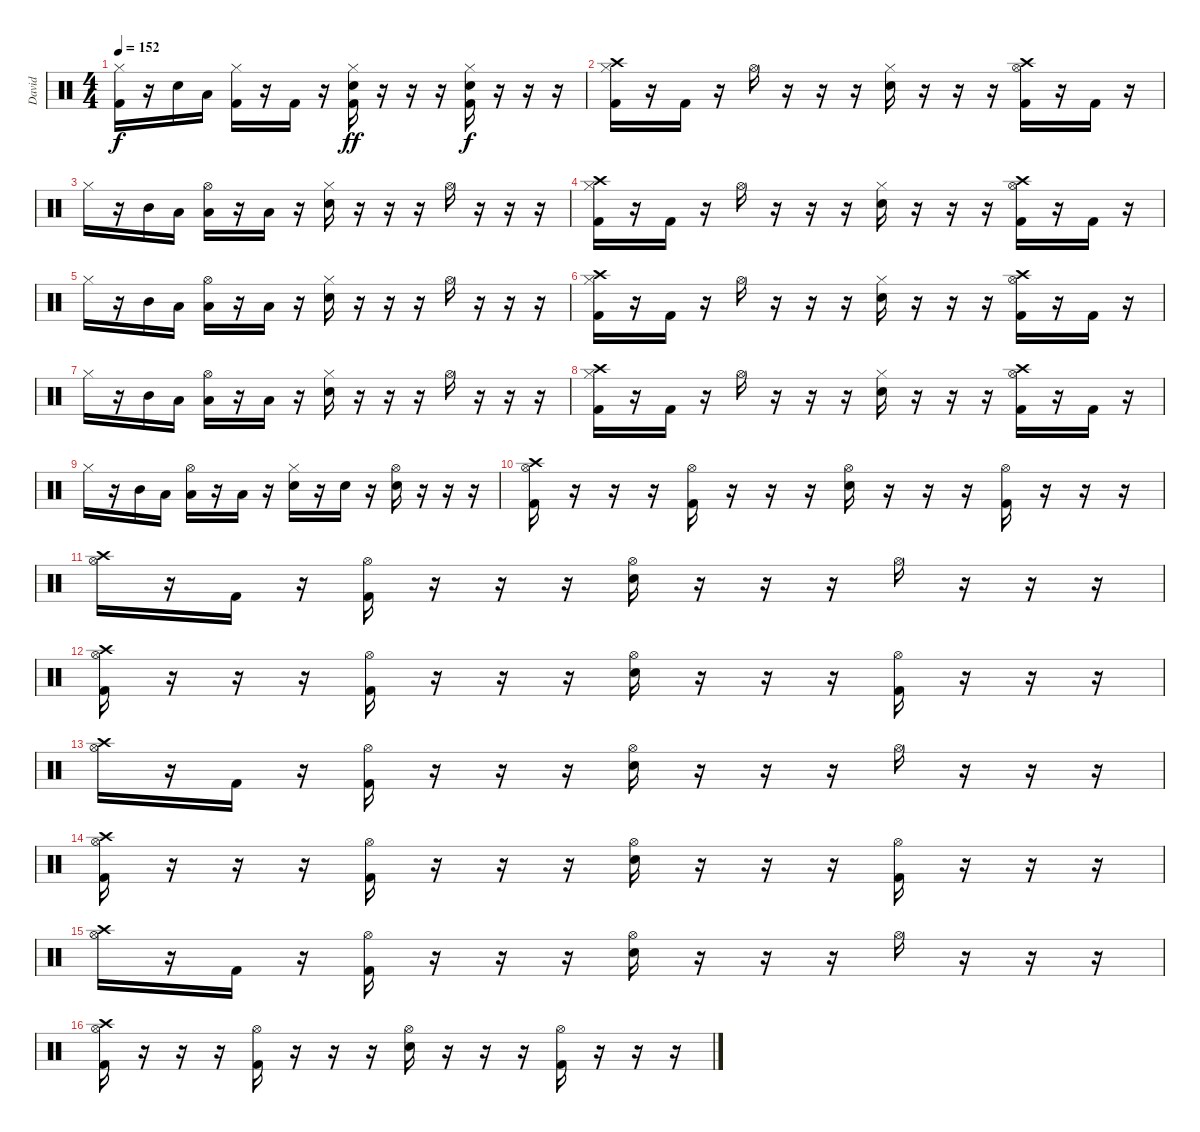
\track ("David" "David") {instrument percussion}
\staff {score}
\articulation defaults
\ts (4 4)
\tempo 152
\clef neutral
\ks c
("Hi-Hat (closed)" "Kick (hit) 2").16{dy f} r.16 "Electric Snare (hit)".16 "Low Tom (hit)".16 ("Hi-Hat (closed)" "Kick (hit) 2").16 r.16 "Kick (hit) 2".16 r.16 ("Hi-Hat (closed)" "Electric Snare (hit)" "Kick (hit) 2").16{dy ff} r.16 r.16 r.16 ("Hi-Hat (closed)" "Electric Snare (hit)" "Kick (hit) 2").16{dy f} r.16 r.16 r.16 |
("Crash high (hit)" "Hi-Hat (closed)" "Kick (hit) 2").16 r.16 "Kick (hit) 2".16 r.16 "Hi-Hat (open)".16 r.16 r.16 r.16 ("Hi-Hat (closed)" "Electric Snare (hit)").16 r.16 r.16 r.16 ("Crash high (hit)" "Hi-Hat (open)" "Kick (hit) 2").16 r.16 "Kick (hit) 2".16 r.16 |
"Hi-Hat (closed)".16 r.16 "Mid Tom (hit)".16 "Low Floor Tom (hit)".16 ("Hi-Hat (open)" "Low Floor Tom (hit)").16 r.16 "Low Floor Tom (hit)".16 r.16 ("Hi-Hat (closed)" "Electric Snare (hit)").16 r.16 r.16 r.16 "Hi-Hat (open)".16 r.16 r.16 r.16 |
("Crash high (hit)" "Hi-Hat (closed)" "Kick (hit) 2").16 r.16 "Kick (hit) 2".16 r.16 "Hi-Hat (open)".16 r.16 r.16 r.16 ("Hi-Hat (closed)" "Electric Snare (hit)").16 r.16 r.16 r.16 ("Crash high (hit)" "Hi-Hat (open)" "Kick (hit) 2").16 r.16 "Kick (hit) 2".16 r.16 |
"Hi-Hat (closed)".16 r.16 "Mid Tom (hit)".16 "Low Floor Tom (hit)".16 ("Hi-Hat (open)" "Low Floor Tom (hit)").16 r.16 "Low Floor Tom (hit)".16 r.16 ("Hi-Hat (closed)" "Electric Snare (hit)").16 r.16 r.16 r.16 "Hi-Hat (open)".16 r.16 r.16 r.16 |
("Crash high (hit)" "Hi-Hat (closed)" "Kick (hit) 2").16 r.16 "Kick (hit) 2".16 r.16 "Hi-Hat (open)".16 r.16 r.16 r.16 ("Hi-Hat (closed)" "Electric Snare (hit)").16 r.16 r.16 r.16 ("Crash high (hit)" "Hi-Hat (open)" "Kick (hit) 2").16 r.16 "Kick (hit) 2".16 r.16 |
"Hi-Hat (closed)".16 r.16 "Mid Tom (hit)".16 "Low Floor Tom (hit)".16 ("Hi-Hat (open)" "Low Floor Tom (hit)").16 r.16 "Low Floor Tom (hit)".16 r.16 ("Hi-Hat (closed)" "Electric Snare (hit)").16 r.16 r.16 r.16 "Hi-Hat (open)".16 r.16 r.16 r.16 |
("Crash high (hit)" "Hi-Hat (closed)" "Kick (hit) 2").16 r.16 "Kick (hit) 2".16 r.16 "Hi-Hat (open)".16 r.16 r.16 r.16 ("Hi-Hat (closed)" "Electric Snare (hit)").16 r.16 r.16 r.16 ("Crash high (hit)" "Hi-Hat (open)" "Kick (hit) 2").16 r.16 "Kick (hit) 2".16 r.16 |
"Hi-Hat (closed)".16 r.16 "Mid Tom (hit)".16 "Low Floor Tom (hit)".16 ("Hi-Hat (open)" "Low Floor Tom (hit)").16 r.16 "Low Floor Tom (hit)".16 r.16 ("Hi-Hat (closed)" "Electric Snare (hit)").16 r.16 "Electric Snare (hit)".16 r.16 ("Hi-Hat (open)" "Electric Snare (hit)").16 r.16 r.16 r.16 |
("Crash high (hit)" "Hi-Hat (open)" "Kick (hit) 2").16 r.16 r.16 r.16 ("Hi-Hat (open)" "Kick (hit) 2").16 r.16 r.16 r.16 ("Hi-Hat (open)" "Electric Snare (hit)").16 r.16 r.16 r.16 ("Hi-Hat (open)" "Kick (hit) 2").16 r.16 r.16 r.16 |
("Crash high (hit)" "Hi-Hat (open)").16 r.16 "Kick (hit) 2".16 r.16 ("Hi-Hat (open)" "Kick (hit) 2").16 r.16 r.16 r.16 ("Hi-Hat (open)" "Electric Snare (hit)").16 r.16 r.16 r.16 "Hi-Hat (open)".16 r.16 r.16 r.16 |
("Crash high (hit)" "Hi-Hat (open)" "Kick (hit) 2").16 r.16 r.16 r.16 ("Hi-Hat (open)" "Kick (hit) 2").16 r.16 r.16 r.16 ("Hi-Hat (open)" "Electric Snare (hit)").16 r.16 r.16 r.16 ("Hi-Hat (open)" "Kick (hit) 2").16 r.16 r.16 r.16 |
("Crash high (hit)" "Hi-Hat (open)").16 r.16 "Kick (hit) 2".16 r.16 ("Hi-Hat (open)" "Kick (hit) 2").16 r.16 r.16 r.16 ("Hi-Hat (open)" "Electric Snare (hit)").16 r.16 r.16 r.16 "Hi-Hat (open)".16 r.16 r.16 r.16 |
("Crash high (hit)" "Hi-Hat (open)" "Kick (hit) 2").16 r.16 r.16 r.16 ("Hi-Hat (open)" "Kick (hit) 2").16 r.16 r.16 r.16 ("Hi-Hat (open)" "Electric Snare (hit)").16 r.16 r.16 r.16 ("Hi-Hat (open)" "Kick (hit) 2").16 r.16 r.16 r.16 |
("Crash high (hit)" "Hi-Hat (open)").16 r.16 "Kick (hit) 2".16 r.16 ("Hi-Hat (open)" "Kick (hit) 2").16 r.16 r.16 r.16 ("Hi-Hat (open)" "Electric Snare (hit)").16 r.16 r.16 r.16 "Hi-Hat (open)".16 r.16 r.16 r.16 |
("Crash high (hit)" "Hi-Hat (open)" "Kick (hit) 2").16 r.16 r.16 r.16 ("Hi-Hat (open)" "Kick (hit) 2").16 r.16 r.16 r.16 ("Hi-Hat (open)" "Electric Snare (hit)").16 r.16 r.16 r.16 ("Hi-Hat (open)" "Kick (hit) 2").16 r.16 r.16 r.16
